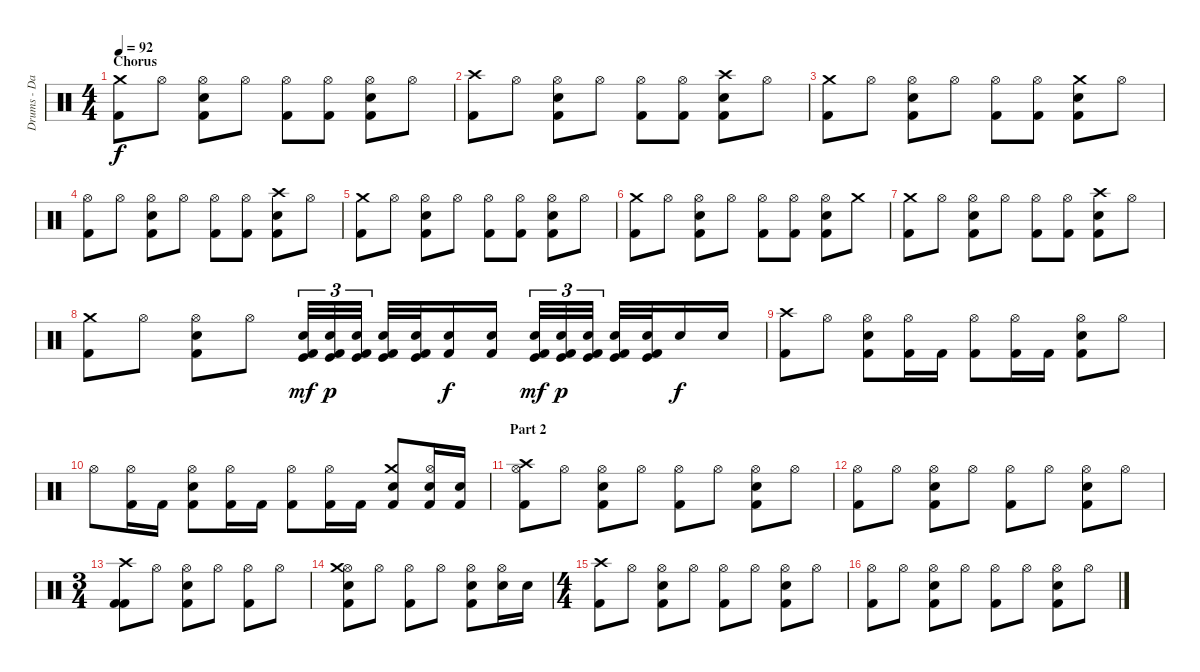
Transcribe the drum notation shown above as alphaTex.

\track ("Drums - Daniel Zimmermann" "Drums - Da") {instrument percussion}
\staff {score}
\articulation defaults
\ts (4 4)
\section ("" "Chorus")
\tempo 92
\clef neutral
\ks c
("Kick (hit) 2" "Crash medium (hit)").8{dy f} "Hi-Hat (open)".8 ("Kick (hit) 2" "Electric Snare (hit)" "Hi-Hat (open)").8 "Hi-Hat (open)".8 ("Kick (hit) 2" "Hi-Hat (open)").8 ("Kick (hit) 2" "Hi-Hat (open)").8 ("Kick (hit) 2" "Electric Snare (hit)" "Hi-Hat (open)").8 "Hi-Hat (open)".8 |
("Kick (hit) 2" "Crash high (hit)").8 "Hi-Hat (open)".8 ("Kick (hit) 2" "Electric Snare (hit)" "Hi-Hat (open)").8 "Hi-Hat (open)".8 ("Kick (hit) 2" "Hi-Hat (open)").8 ("Kick (hit) 2" "Hi-Hat (open)").8 ("Kick (hit) 2" "Electric Snare (hit)" "Crash high (hit)").8 "Hi-Hat (open)".8 |
("Kick (hit) 2" "Crash medium (hit)").8 "Hi-Hat (open)".8 ("Kick (hit) 2" "Electric Snare (hit)" "Hi-Hat (open)").8 "Hi-Hat (open)".8 ("Kick (hit) 2" "Hi-Hat (open)").8 ("Kick (hit) 2" "Hi-Hat (open)").8 ("Kick (hit) 2" "Electric Snare (hit)" "Crash medium (hit)").8 "Hi-Hat (open)".8 |
("Kick (hit) 2" "Hi-Hat (open)").8 "Hi-Hat (open)".8 ("Kick (hit) 2" "Electric Snare (hit)" "Hi-Hat (open)").8 "Hi-Hat (open)".8 ("Kick (hit) 2" "Hi-Hat (open)").8 ("Kick (hit) 2" "Hi-Hat (open)").8 ("Kick (hit) 2" "Electric Snare (hit)" "Crash high (hit)").8 "Hi-Hat (open)".8 |
("Kick (hit) 2" "Crash medium (hit)").8 "Hi-Hat (open)".8 ("Kick (hit) 2" "Electric Snare (hit)" "Hi-Hat (open)").8 "Hi-Hat (open)".8 ("Kick (hit) 2" "Hi-Hat (open)").8 ("Kick (hit) 2" "Hi-Hat (open)").8 ("Kick (hit) 2" "Electric Snare (hit)" "Hi-Hat (open)").8 "Hi-Hat (open)".8 |
("Kick (hit) 2" "Crash medium (hit)").8 "Hi-Hat (open)".8 ("Kick (hit) 2" "Electric Snare (hit)" "Hi-Hat (open)").8 "Hi-Hat (open)".8 ("Kick (hit) 2" "Hi-Hat (open)").8 ("Kick (hit) 2" "Hi-Hat (open)").8 ("Kick (hit) 2" "Electric Snare (hit)" "Hi-Hat (open)").8 "Crash medium (hit)".8 |
("Kick (hit) 2" "Crash medium (hit)").8 "Hi-Hat (open)".8 ("Kick (hit) 2" "Electric Snare (hit)" "Hi-Hat (open)").8 "Hi-Hat (open)".8 ("Kick (hit) 2" "Hi-Hat (open)").8 ("Kick (hit) 2" "Hi-Hat (open)").8 ("Kick (hit) 2" "Electric Snare (hit)" "Crash high (hit)").8 "Hi-Hat (open)".8 |
("Kick (hit) 2" "Crash medium (hit)").8 "Hi-Hat (open)".8 ("Kick (hit) 2" "Electric Snare (hit)" "Hi-Hat (open)").8 "Hi-Hat (open)".8 ("Kick (hit) 2" "Kick (hit)" "Electric Snare (hit)").32{tu (3 2) dy mf} ("Kick (hit) 2" "Kick (hit)" "Electric Snare (hit)").32{tu (3 2) dy p} ("Kick (hit) 2" "Kick (hit)" "Electric Snare (hit)").32{tu (3 2)} ("Kick (hit) 2" "Kick (hit)" "Electric Snare (hit)").32 ("Kick (hit) 2" "Kick (hit)" "Electric Snare (hit)").32 ("Kick (hit) 2" "Electric Snare (hit)").16{dy f} ("Kick (hit) 2" "Electric Snare (hit)").16 ("Kick (hit) 2" "Kick (hit)" "Electric Snare (hit)").32{tu (3 2) dy mf} ("Kick (hit) 2" "Kick (hit)" "Electric Snare (hit)").32{tu (3 2) dy p} ("Kick (hit) 2" "Kick (hit)" "Electric Snare (hit)").32{tu (3 2)} ("Kick (hit) 2" "Kick (hit)" "Electric Snare (hit)").32 ("Kick (hit) 2" "Kick (hit)" "Electric Snare (hit)").32 "Electric Snare (hit)".16{dy f} "Electric Snare (hit)".16 |
("Kick (hit) 2" "Crash high (hit)").8 "Hi-Hat (open)".8 ("Kick (hit) 2" "Electric Snare (hit)" "Hi-Hat (open)").8 ("Kick (hit) 2" "Hi-Hat (open)").16 "Kick (hit) 2".16 ("Kick (hit) 2" "Hi-Hat (open)").8 ("Kick (hit) 2" "Hi-Hat (open)").16 "Kick (hit) 2".16 ("Kick (hit) 2" "Electric Snare (hit)" "Hi-Hat (open)").8 "Hi-Hat (open)".8 |
"Hi-Hat (open)".8 ("Kick (hit) 2" "Hi-Hat (open)").16 "Kick (hit) 2".16 ("Kick (hit) 2" "Electric Snare (hit)" "Hi-Hat (open)").8 ("Kick (hit) 2" "Hi-Hat (open)").16 "Kick (hit) 2".16 ("Kick (hit) 2" "Hi-Hat (open)").8 ("Kick (hit) 2" "Hi-Hat (open)").16 "Kick (hit) 2".16 ("Kick (hit) 2" "Electric Snare (hit)" "Crash medium (hit)").8 ("Kick (hit) 2" "Electric Snare (hit)" "Hi-Hat (open)").16 ("Kick (hit) 2" "Electric Snare (hit)").16 |
\section ("" "Part 2")
("Kick (hit) 2" "Hi-Hat (open)" "Crash high (hit)").8 "Hi-Hat (open)".8 ("Kick (hit) 2" "Electric Snare (hit)" "Hi-Hat (open)").8 "Hi-Hat (open)".8 ("Kick (hit) 2" "Hi-Hat (open)").8 "Hi-Hat (open)".8 ("Kick (hit) 2" "Electric Snare (hit)" "Hi-Hat (open)").8 "Hi-Hat (open)".8 |
("Kick (hit) 2" "Hi-Hat (open)").8 "Hi-Hat (open)".8 ("Kick (hit) 2" "Electric Snare (hit)" "Hi-Hat (open)").8 "Hi-Hat (open)".8 ("Kick (hit) 2" "Hi-Hat (open)").8 "Hi-Hat (open)".8 ("Kick (hit) 2" "Electric Snare (hit)" "Hi-Hat (open)").8 "Hi-Hat (open)".8 |
\ts (3 4)
("Kick (hit) 2" "Kick (hit) 2" "Crash high (hit)").8 "Hi-Hat (open)".8 ("Kick (hit) 2" "Electric Snare (hit)" "Hi-Hat (open)").8 "Hi-Hat (open)".8 ("Kick (hit) 2" "Hi-Hat (open)").8 "Hi-Hat (open)".8 |
("Kick (hit) 2" "Electric Snare (hit)" "Hi-Hat (open)" "Crash medium (hit)").8 "Hi-Hat (open)".8 ("Kick (hit) 2" "Hi-Hat (open)").8 "Hi-Hat (open)".8 ("Kick (hit) 2" "Electric Snare (hit)" "Hi-Hat (open)").8 ("Electric Snare (hit)" "Hi-Hat (open)").16 "Electric Snare (hit)".16 |
\ts (4 4)
("Kick (hit) 2" "Crash high (hit)").8 "Hi-Hat (open)".8 ("Kick (hit) 2" "Electric Snare (hit)" "Hi-Hat (open)").8 "Hi-Hat (open)".8 ("Kick (hit) 2" "Hi-Hat (open)").8 "Hi-Hat (open)".8 ("Kick (hit) 2" "Electric Snare (hit)" "Hi-Hat (open)").8 "Hi-Hat (open)".8 |
("Kick (hit) 2" "Hi-Hat (open)").8 "Hi-Hat (open)".8 ("Kick (hit) 2" "Electric Snare (hit)" "Hi-Hat (open)").8 "Hi-Hat (open)".8 ("Kick (hit) 2" "Hi-Hat (open)").8 "Hi-Hat (open)".8 ("Kick (hit) 2" "Electric Snare (hit)" "Hi-Hat (open)").8 "Hi-Hat (open)".8
